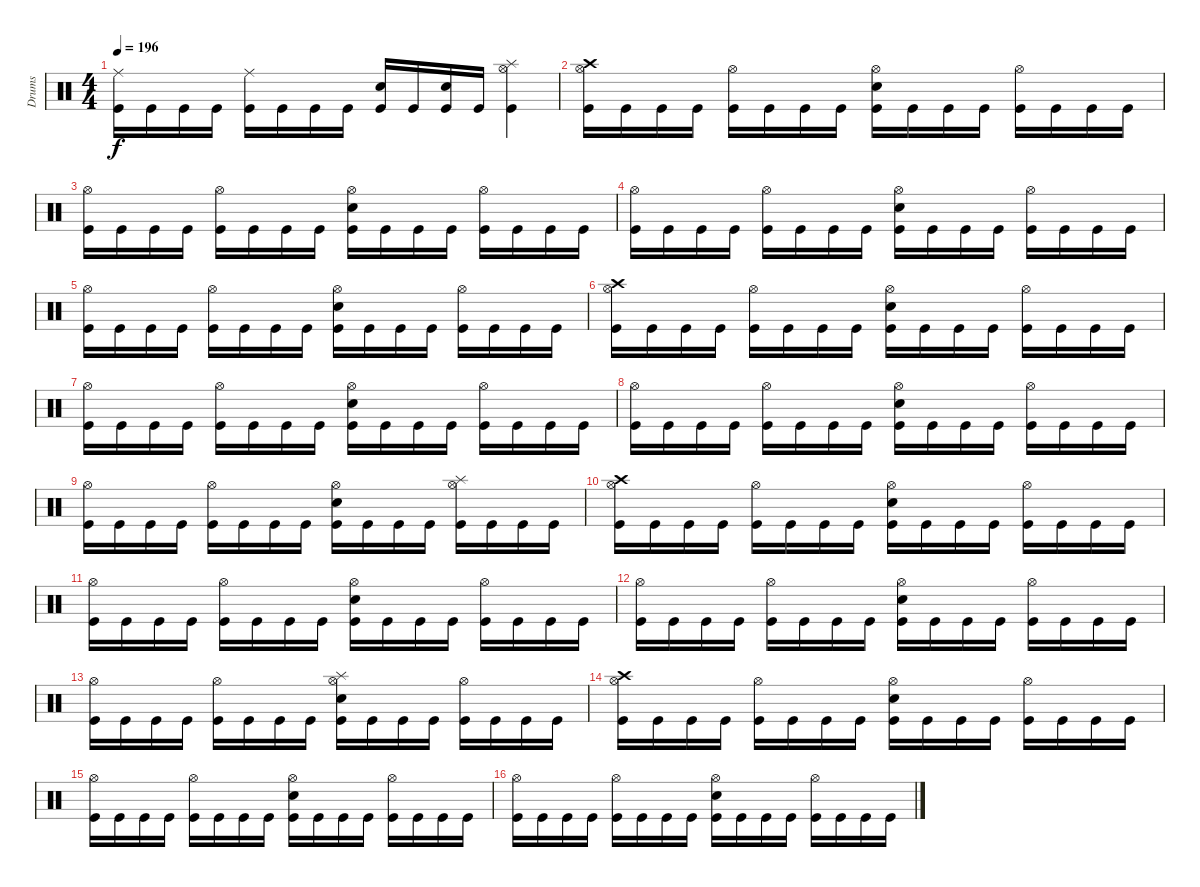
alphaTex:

\track ("Drums" "Drums") {instrument percussion}
\staff {score}
\articulation defaults
\ts (4 4)
\tempo 196
\clef neutral
\ks c
("Ride (middle)" "Kick (hit)").16{dy f} "Kick (hit)".16 "Kick (hit)".16 "Kick (hit)".16 ("Ride (middle)" "Kick (hit)").16 "Kick (hit)".16 "Kick (hit)".16 "Kick (hit)".16 ("Electric Snare (hit)" "Kick (hit)").16 "Kick (hit)".16 ("Electric Snare (hit)" "Kick (hit)").16 "Kick (hit)".16 ("Splash (hit)" "Hi-Hat (open)" "Kick (hit)").4 |
("Crash high (hit)" "Hi-Hat (open)" "Kick (hit)").16 "Kick (hit)".16 "Kick (hit)".16 "Kick (hit)".16 ("Hi-Hat (open)" "Kick (hit)").16 "Kick (hit)".16 "Kick (hit)".16 "Kick (hit)".16 ("Hi-Hat (open)" "Electric Snare (hit)" "Kick (hit)").16 "Kick (hit)".16 "Kick (hit)".16 "Kick (hit)".16 ("Hi-Hat (open)" "Kick (hit)").16 "Kick (hit)".16 "Kick (hit)".16 "Kick (hit)".16 |
("Hi-Hat (open)" "Kick (hit)").16 "Kick (hit)".16 "Kick (hit)".16 "Kick (hit)".16 ("Hi-Hat (open)" "Kick (hit)").16 "Kick (hit)".16 "Kick (hit)".16 "Kick (hit)".16 ("Hi-Hat (open)" "Electric Snare (hit)" "Kick (hit)").16 "Kick (hit)".16 "Kick (hit)".16 "Kick (hit)".16 ("Hi-Hat (open)" "Kick (hit)").16 "Kick (hit)".16 "Kick (hit)".16 "Kick (hit)".16 |
("Hi-Hat (open)" "Kick (hit)").16 "Kick (hit)".16 "Kick (hit)".16 "Kick (hit)".16 ("Hi-Hat (open)" "Kick (hit)").16 "Kick (hit)".16 "Kick (hit)".16 "Kick (hit)".16 ("Hi-Hat (open)" "Electric Snare (hit)" "Kick (hit)").16 "Kick (hit)".16 "Kick (hit)".16 "Kick (hit)".16 ("Hi-Hat (open)" "Kick (hit)").16 "Kick (hit)".16 "Kick (hit)".16 "Kick (hit)".16 |
("Hi-Hat (open)" "Kick (hit)").16 "Kick (hit)".16 "Kick (hit)".16 "Kick (hit)".16 ("Hi-Hat (open)" "Kick (hit)").16 "Kick (hit)".16 "Kick (hit)".16 "Kick (hit)".16 ("Hi-Hat (open)" "Electric Snare (hit)" "Kick (hit)").16 "Kick (hit)".16 "Kick (hit)".16 "Kick (hit)".16 ("Hi-Hat (open)" "Kick (hit)").16 "Kick (hit)".16 "Kick (hit)".16 "Kick (hit)".16 |
("Crash high (hit)" "Hi-Hat (open)" "Kick (hit)").16 "Kick (hit)".16 "Kick (hit)".16 "Kick (hit)".16 ("Hi-Hat (open)" "Kick (hit)").16 "Kick (hit)".16 "Kick (hit)".16 "Kick (hit)".16 ("Hi-Hat (open)" "Electric Snare (hit)" "Kick (hit)").16 "Kick (hit)".16 "Kick (hit)".16 "Kick (hit)".16 ("Hi-Hat (open)" "Kick (hit)").16 "Kick (hit)".16 "Kick (hit)".16 "Kick (hit)".16 |
("Hi-Hat (open)" "Kick (hit)").16 "Kick (hit)".16 "Kick (hit)".16 "Kick (hit)".16 ("Hi-Hat (open)" "Kick (hit)").16 "Kick (hit)".16 "Kick (hit)".16 "Kick (hit)".16 ("Hi-Hat (open)" "Electric Snare (hit)" "Kick (hit)").16 "Kick (hit)".16 "Kick (hit)".16 "Kick (hit)".16 ("Hi-Hat (open)" "Kick (hit)").16 "Kick (hit)".16 "Kick (hit)".16 "Kick (hit)".16 |
("Hi-Hat (open)" "Kick (hit)").16 "Kick (hit)".16 "Kick (hit)".16 "Kick (hit)".16 ("Hi-Hat (open)" "Kick (hit)").16 "Kick (hit)".16 "Kick (hit)".16 "Kick (hit)".16 ("Hi-Hat (open)" "Electric Snare (hit)" "Kick (hit)").16 "Kick (hit)".16 "Kick (hit)".16 "Kick (hit)".16 ("Hi-Hat (open)" "Kick (hit)").16 "Kick (hit)".16 "Kick (hit)".16 "Kick (hit)".16 |
("Hi-Hat (open)" "Kick (hit)").16 "Kick (hit)".16 "Kick (hit)".16 "Kick (hit)".16 ("Hi-Hat (open)" "Kick (hit)").16 "Kick (hit)".16 "Kick (hit)".16 "Kick (hit)".16 ("Hi-Hat (open)" "Electric Snare (hit)" "Kick (hit)").16 "Kick (hit)".16 "Kick (hit)".16 "Kick (hit)".16 ("Splash (hit)" "Hi-Hat (open)" "Kick (hit)").16 "Kick (hit)".16 "Kick (hit)".16 "Kick (hit)".16 |
("Crash high (hit)" "Hi-Hat (open)" "Kick (hit)").16 "Kick (hit)".16 "Kick (hit)".16 "Kick (hit)".16 ("Hi-Hat (open)" "Kick (hit)").16 "Kick (hit)".16 "Kick (hit)".16 "Kick (hit)".16 ("Hi-Hat (open)" "Electric Snare (hit)" "Kick (hit)").16 "Kick (hit)".16 "Kick (hit)".16 "Kick (hit)".16 ("Hi-Hat (open)" "Kick (hit)").16 "Kick (hit)".16 "Kick (hit)".16 "Kick (hit)".16 |
("Hi-Hat (open)" "Kick (hit)").16 "Kick (hit)".16 "Kick (hit)".16 "Kick (hit)".16 ("Hi-Hat (open)" "Kick (hit)").16 "Kick (hit)".16 "Kick (hit)".16 "Kick (hit)".16 ("Hi-Hat (open)" "Electric Snare (hit)" "Kick (hit)").16 "Kick (hit)".16 "Kick (hit)".16 "Kick (hit)".16 ("Hi-Hat (open)" "Kick (hit)").16 "Kick (hit)".16 "Kick (hit)".16 "Kick (hit)".16 |
("Hi-Hat (open)" "Kick (hit)").16 "Kick (hit)".16 "Kick (hit)".16 "Kick (hit)".16 ("Hi-Hat (open)" "Kick (hit)").16 "Kick (hit)".16 "Kick (hit)".16 "Kick (hit)".16 ("Hi-Hat (open)" "Electric Snare (hit)" "Kick (hit)").16 "Kick (hit)".16 "Kick (hit)".16 "Kick (hit)".16 ("Hi-Hat (open)" "Kick (hit)").16 "Kick (hit)".16 "Kick (hit)".16 "Kick (hit)".16 |
("Hi-Hat (open)" "Kick (hit)").16 "Kick (hit)".16 "Kick (hit)".16 "Kick (hit)".16 ("Hi-Hat (open)" "Kick (hit)").16 "Kick (hit)".16 "Kick (hit)".16 "Kick (hit)".16 ("Splash (hit)" "Hi-Hat (open)" "Electric Snare (hit)" "Kick (hit)").16 "Kick (hit)".16 "Kick (hit)".16 "Kick (hit)".16 ("Hi-Hat (open)" "Kick (hit)").16 "Kick (hit)".16 "Kick (hit)".16 "Kick (hit)".16 |
("Crash high (hit)" "Hi-Hat (open)" "Kick (hit)").16 "Kick (hit)".16 "Kick (hit)".16 "Kick (hit)".16 ("Hi-Hat (open)" "Kick (hit)").16 "Kick (hit)".16 "Kick (hit)".16 "Kick (hit)".16 ("Hi-Hat (open)" "Electric Snare (hit)" "Kick (hit)").16 "Kick (hit)".16 "Kick (hit)".16 "Kick (hit)".16 ("Hi-Hat (open)" "Kick (hit)").16 "Kick (hit)".16 "Kick (hit)".16 "Kick (hit)".16 |
("Hi-Hat (open)" "Kick (hit)").16 "Kick (hit)".16 "Kick (hit)".16 "Kick (hit)".16 ("Hi-Hat (open)" "Kick (hit)").16 "Kick (hit)".16 "Kick (hit)".16 "Kick (hit)".16 ("Hi-Hat (open)" "Electric Snare (hit)" "Kick (hit)").16 "Kick (hit)".16 "Kick (hit)".16 "Kick (hit)".16 ("Hi-Hat (open)" "Kick (hit)").16 "Kick (hit)".16 "Kick (hit)".16 "Kick (hit)".16 |
("Hi-Hat (open)" "Kick (hit)").16 "Kick (hit)".16 "Kick (hit)".16 "Kick (hit)".16 ("Hi-Hat (open)" "Kick (hit)").16 "Kick (hit)".16 "Kick (hit)".16 "Kick (hit)".16 ("Hi-Hat (open)" "Electric Snare (hit)" "Kick (hit)").16 "Kick (hit)".16 "Kick (hit)".16 "Kick (hit)".16 ("Hi-Hat (open)" "Kick (hit)").16 "Kick (hit)".16 "Kick (hit)".16 "Kick (hit)".16
